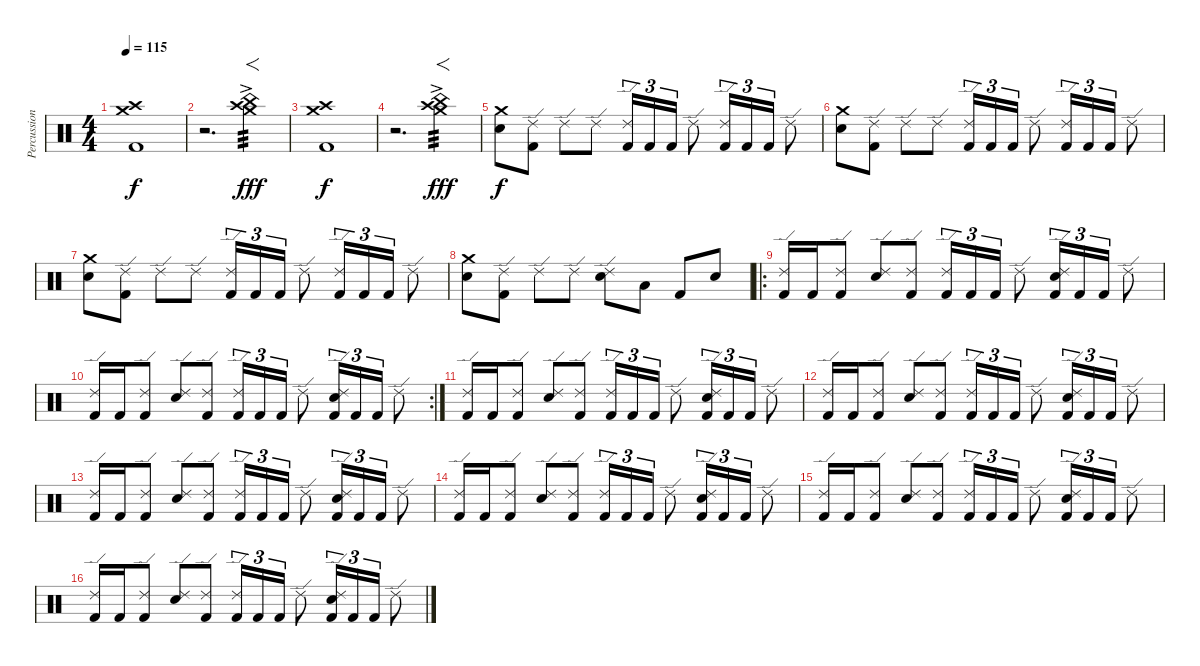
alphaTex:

\track ("Percussion" "Percussion") {instrument percussion}
\staff {score}
\articulation defaults
\ts (4 4)
\tempo 115
\clef neutral
\ks c
("Crash medium (hit)" "Crash high (hit)" "Kick (hit) 2").1{dy f} |
r.2{d} ("Crash high (hit)"{ac} "Crash medium (hit)" "China (hit)").4{f tp 3 dy fff} |
("Crash high (hit)" "Crash medium (hit)" "Kick (hit) 2").1{dy f} |
r.2{d} ("Crash high (hit)"{ac} "Crash medium (hit)" "China (hit)").4{f tp 3 dy fff} |
("Crash medium (hit)" "Snare (hit) 2").8{dy f} ("Ride (edge) 2" "Kick (hit) 2").8 "Ride (edge) 2".8 "Ride (edge) 2".8 ("Ride (edge) 2" "Kick (hit) 2").16{tu (3 2)} "Kick (hit) 2".16{tu (3 2)} "Kick (hit) 2".16{tu (3 2)} "Ride (edge) 2".8 ("Ride (edge) 2" "Kick (hit) 2").16{tu (3 2)} "Kick (hit) 2".16{tu (3 2)} "Kick (hit) 2".16{tu (3 2)} "Ride (edge) 2".8 |
("Crash medium (hit)" "Snare (hit) 2").8 ("Ride (edge) 2" "Kick (hit) 2").8 "Ride (edge) 2".8 "Ride (edge) 2".8 ("Ride (edge) 2" "Kick (hit) 2").16{tu (3 2)} "Kick (hit) 2".16{tu (3 2)} "Kick (hit) 2".16{tu (3 2)} "Ride (edge) 2".8 ("Ride (edge) 2" "Kick (hit) 2").16{tu (3 2)} "Kick (hit) 2".16{tu (3 2)} "Kick (hit) 2".16{tu (3 2)} "Ride (edge) 2".8 |
("Crash medium (hit)" "Snare (hit) 2").8 ("Ride (edge) 2" "Kick (hit) 2").8 "Ride (edge) 2".8 "Ride (edge) 2".8 ("Ride (edge) 2" "Kick (hit) 2").16{tu (3 2)} "Kick (hit) 2".16{tu (3 2)} "Kick (hit) 2".16{tu (3 2)} "Ride (edge) 2".8 ("Ride (edge) 2" "Kick (hit) 2").16{tu (3 2)} "Kick (hit) 2".16{tu (3 2)} "Kick (hit) 2".16{tu (3 2)} "Ride (edge) 2".8 |
("Crash medium (hit)" "Snare (hit) 2").8 ("Ride (edge) 2" "Kick (hit) 2").8 "Ride (edge) 2".8 "Ride (edge) 2".8 ("Ride (edge) 2" "Snare (hit) 2").8 "Low Tom (hit)".8 "Kick (hit) 2".8 "Snare (hit) 2".8 |
\ro
("Ride (edge) 2" "Kick (hit) 2").16 "Kick (hit) 2".16 ("Ride (edge) 2" "Kick (hit) 2").8 ("Ride (edge) 2" "Snare (hit) 2").8 ("Ride (edge) 2" "Kick (hit) 2").8 ("Ride (edge) 2" "Kick (hit) 2").16{tu (3 2)} "Kick (hit) 2".16{tu (3 2)} "Kick (hit) 2".16{tu (3 2)} "Ride (edge) 2".8 ("Ride (edge) 2" "Snare (hit) 2" "Kick (hit) 2").16{tu (3 2)} "Kick (hit) 2".16{tu (3 2)} "Kick (hit) 2".16{tu (3 2)} "Ride (edge) 2".8 |
\rc 2
("Ride (edge) 2" "Kick (hit) 2").16 "Kick (hit) 2".16 ("Ride (edge) 2" "Kick (hit) 2").8 ("Ride (edge) 2" "Snare (hit) 2").8 ("Ride (edge) 2" "Kick (hit) 2").8 ("Ride (edge) 2" "Kick (hit) 2").16{tu (3 2)} "Kick (hit) 2".16{tu (3 2)} "Kick (hit) 2".16{tu (3 2)} "Ride (edge) 2".8 ("Ride (edge) 2" "Snare (hit) 2" "Kick (hit) 2").16{tu (3 2)} "Kick (hit) 2".16{tu (3 2)} "Kick (hit) 2".16{tu (3 2)} "Ride (edge) 2".8 |
("Ride (edge) 2" "Kick (hit) 2").16 "Kick (hit) 2".16 ("Ride (edge) 2" "Kick (hit) 2").8 ("Ride (edge) 2" "Snare (hit) 2").8 ("Ride (edge) 2" "Kick (hit) 2").8 ("Ride (edge) 2" "Kick (hit) 2").16{tu (3 2)} "Kick (hit) 2".16{tu (3 2)} "Kick (hit) 2".16{tu (3 2)} "Ride (edge) 2".8 ("Ride (edge) 2" "Snare (hit) 2" "Kick (hit) 2").16{tu (3 2)} "Kick (hit) 2".16{tu (3 2)} "Kick (hit) 2".16{tu (3 2)} "Ride (edge) 2".8 |
("Ride (edge) 2" "Kick (hit) 2").16 "Kick (hit) 2".16 ("Ride (edge) 2" "Kick (hit) 2").8 ("Ride (edge) 2" "Snare (hit) 2").8 ("Ride (edge) 2" "Kick (hit) 2").8 ("Ride (edge) 2" "Kick (hit) 2").16{tu (3 2)} "Kick (hit) 2".16{tu (3 2)} "Kick (hit) 2".16{tu (3 2)} "Ride (edge) 2".8 ("Ride (edge) 2" "Snare (hit) 2" "Kick (hit) 2").16{tu (3 2)} "Kick (hit) 2".16{tu (3 2)} "Kick (hit) 2".16{tu (3 2)} "Ride (edge) 2".8 |
("Ride (edge) 2" "Kick (hit) 2").16 "Kick (hit) 2".16 ("Ride (edge) 2" "Kick (hit) 2").8 ("Ride (edge) 2" "Snare (hit) 2").8 ("Ride (edge) 2" "Kick (hit) 2").8 ("Ride (edge) 2" "Kick (hit) 2").16{tu (3 2)} "Kick (hit) 2".16{tu (3 2)} "Kick (hit) 2".16{tu (3 2)} "Ride (edge) 2".8 ("Ride (edge) 2" "Snare (hit) 2" "Kick (hit) 2").16{tu (3 2)} "Kick (hit) 2".16{tu (3 2)} "Kick (hit) 2".16{tu (3 2)} "Ride (edge) 2".8 |
("Ride (edge) 2" "Kick (hit) 2").16 "Kick (hit) 2".16 ("Ride (edge) 2" "Kick (hit) 2").8 ("Ride (edge) 2" "Snare (hit) 2").8 ("Ride (edge) 2" "Kick (hit) 2").8 ("Ride (edge) 2" "Kick (hit) 2").16{tu (3 2)} "Kick (hit) 2".16{tu (3 2)} "Kick (hit) 2".16{tu (3 2)} "Ride (edge) 2".8 ("Ride (edge) 2" "Snare (hit) 2" "Kick (hit) 2").16{tu (3 2)} "Kick (hit) 2".16{tu (3 2)} "Kick (hit) 2".16{tu (3 2)} "Ride (edge) 2".8 |
("Ride (edge) 2" "Kick (hit) 2").16 "Kick (hit) 2".16 ("Ride (edge) 2" "Kick (hit) 2").8 ("Ride (edge) 2" "Snare (hit) 2").8 ("Ride (edge) 2" "Kick (hit) 2").8 ("Ride (edge) 2" "Kick (hit) 2").16{tu (3 2)} "Kick (hit) 2".16{tu (3 2)} "Kick (hit) 2".16{tu (3 2)} "Ride (edge) 2".8 ("Ride (edge) 2" "Snare (hit) 2" "Kick (hit) 2").16{tu (3 2)} "Kick (hit) 2".16{tu (3 2)} "Kick (hit) 2".16{tu (3 2)} "Ride (edge) 2".8 |
("Ride (edge) 2" "Kick (hit) 2").16 "Kick (hit) 2".16 ("Ride (edge) 2" "Kick (hit) 2").8 ("Ride (edge) 2" "Snare (hit) 2").8 ("Ride (edge) 2" "Kick (hit) 2").8 ("Ride (edge) 2" "Kick (hit) 2").16{tu (3 2)} "Kick (hit) 2".16{tu (3 2)} "Kick (hit) 2".16{tu (3 2)} "Ride (edge) 2".8 ("Ride (edge) 2" "Snare (hit) 2" "Kick (hit) 2").16{tu (3 2)} "Kick (hit) 2".16{tu (3 2)} "Kick (hit) 2".16{tu (3 2)} "Ride (edge) 2".8
